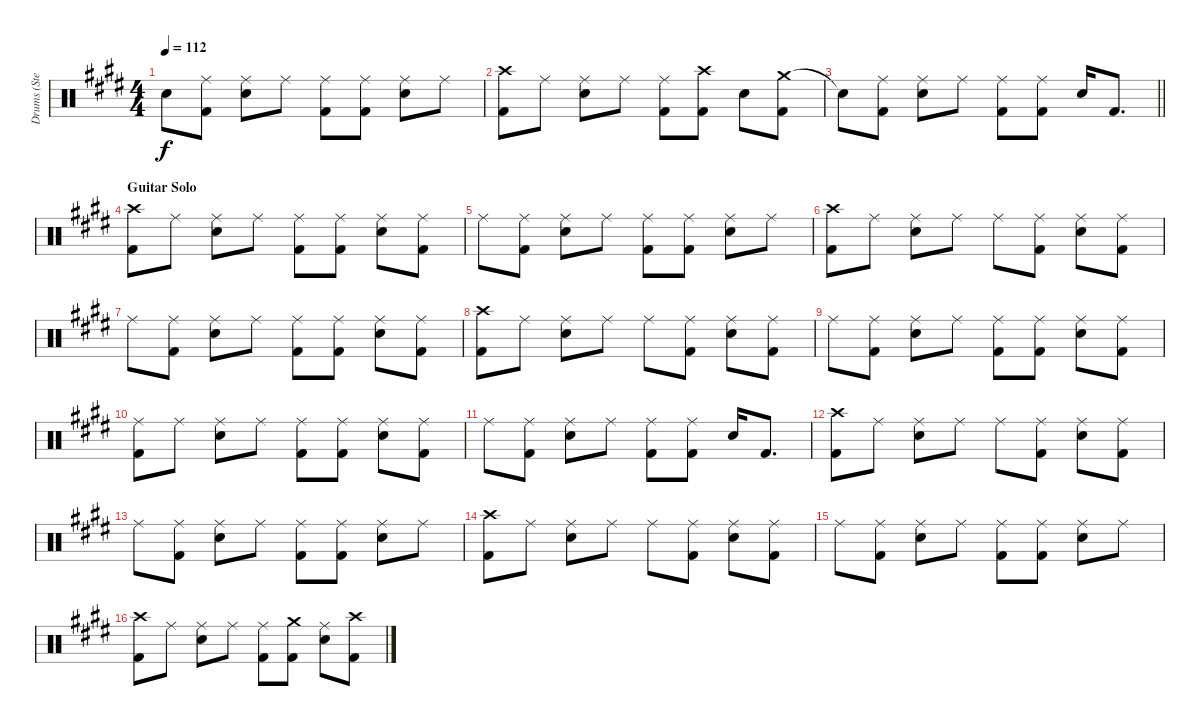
\track ("Drums (Steven)" "Drums (Ste") {instrument percussion}
\staff {score}
\articulation defaults
\ts (4 4)
\tempo 112
\clef neutral
\ks e "Snare (hit)"{t}.8{dy f}
("Ride (middle)" "Kick (hit) 2").8 ("Ride (middle)" "Snare (hit) 2").8 "Ride (middle)".8 ("Ride (middle)" "Kick (hit) 2").8 ("Ride (middle)" "Kick (hit) 2").8 ("Ride (middle)" "Snare (hit) 2").8 "Ride (middle)".8 |
("Crash high (hit)" "Kick (hit) 2").8 "Ride (middle)".8 ("Ride (middle)" "Snare (hit) 2").8 "Ride (middle)".8 ("Ride (middle)" "Kick (hit) 2").8 ("Crash high (hit)" "Kick (hit) 2").8 "Snare (hit) 2".8 ("Crash medium (hit)" "Kick (hit) 2").8 |
\barLineRight lightlight "Snare (hit)"{t}.8
("Ride (middle)" "Kick (hit) 2").8 ("Ride (middle)" "Snare (hit) 2").8 "Ride (middle)".8 ("Ride (middle)" "Kick (hit) 2").8 ("Ride (middle)" "Kick (hit) 2").8 "Snare (hit) 2".16 "Kick (hit) 2".8{d} |
\section ("" "Guitar Solo")
("Crash high (hit)" "Kick (hit) 2").8 "Ride (middle)".8 ("Ride (middle)" "Snare (hit) 2").8 "Ride (middle)".8 ("Ride (middle)" "Kick (hit) 2").8 ("Ride (middle)" "Kick (hit) 2").8 ("Ride (middle)" "Snare (hit) 2").8 ("Ride (middle)" "Kick (hit) 2").8 |
"Ride (middle)".8 ("Ride (middle)" "Kick (hit) 2").8 ("Ride (middle)" "Snare (hit) 2").8 "Ride (middle)".8 ("Ride (middle)" "Kick (hit) 2").8 ("Ride (middle)" "Kick (hit) 2").8 ("Ride (middle)" "Snare (hit) 2").8 "Ride (middle)".8 |
("Crash high (hit)" "Kick (hit) 2").8 "Ride (middle)".8 ("Ride (middle)" "Snare (hit) 2").8 "Ride (middle)".8 "Ride (middle)".8 ("Ride (middle)" "Kick (hit) 2").8 ("Ride (middle)" "Snare (hit) 2").8 ("Ride (middle)" "Kick (hit) 2").8 |
"Ride (middle)".8 ("Ride (middle)" "Kick (hit) 2").8 ("Ride (middle)" "Snare (hit) 2").8 "Ride (middle)".8 ("Ride (middle)" "Kick (hit) 2").8 ("Ride (middle)" "Kick (hit) 2").8 ("Ride (middle)" "Snare (hit) 2").8 ("Ride (middle)" "Kick (hit) 2").8 |
("Crash high (hit)" "Kick (hit) 2").8 "Ride (middle)".8 ("Ride (middle)" "Snare (hit) 2").8 "Ride (middle)".8 "Ride (middle)".8 ("Ride (middle)" "Kick (hit) 2").8 ("Ride (middle)" "Snare (hit) 2").8 ("Ride (middle)" "Kick (hit) 2").8 |
"Ride (middle)".8 ("Ride (middle)" "Kick (hit) 2").8 ("Ride (middle)" "Snare (hit) 2").8 "Ride (middle)".8 ("Ride (middle)" "Kick (hit) 2").8 ("Ride (middle)" "Kick (hit) 2").8 ("Ride (middle)" "Snare (hit) 2").8 ("Ride (middle)" "Kick (hit) 2").8 |
("Ride (middle)" "Kick (hit) 2").8 "Ride (middle)".8 ("Ride (middle)" "Snare (hit) 2").8 "Ride (middle)".8 ("Ride (middle)" "Kick (hit) 2").8 ("Ride (middle)" "Kick (hit) 2").8 ("Ride (middle)" "Snare (hit) 2").8 ("Ride (middle)" "Kick (hit) 2").8 |
"Ride (middle)".8 ("Ride (middle)" "Kick (hit) 2").8 ("Ride (middle)" "Snare (hit) 2").8 "Ride (middle)".8 ("Ride (middle)" "Kick (hit) 2").8 ("Ride (middle)" "Kick (hit) 2").8 "Snare (hit) 2".16 "Kick (hit) 2".8{d} |
("Crash high (hit)" "Kick (hit) 2").8 "Ride (middle)".8 ("Ride (middle)" "Snare (hit) 2").8 "Ride (middle)".8 "Ride (middle)".8 ("Ride (middle)" "Kick (hit) 2").8 ("Ride (middle)" "Snare (hit) 2").8 ("Ride (middle)" "Kick (hit) 2").8 |
"Ride (middle)".8 ("Ride (middle)" "Kick (hit) 2").8 ("Ride (middle)" "Snare (hit) 2").8 "Ride (middle)".8 ("Ride (middle)" "Kick (hit) 2").8 ("Ride (middle)" "Kick (hit) 2").8 ("Ride (middle)" "Snare (hit) 2").8 "Ride (middle)".8 |
("Crash high (hit)" "Kick (hit) 2").8 "Ride (middle)".8 ("Ride (middle)" "Snare (hit) 2").8 "Ride (middle)".8 "Ride (middle)".8 ("Ride (middle)" "Kick (hit) 2").8 ("Ride (middle)" "Snare (hit) 2").8 ("Ride (middle)" "Kick (hit) 2").8 |
"Ride (middle)".8 ("Ride (middle)" "Kick (hit) 2").8 ("Ride (middle)" "Snare (hit) 2").8 "Ride (middle)".8 ("Ride (middle)" "Kick (hit) 2").8 ("Ride (middle)" "Kick (hit) 2").8 ("Ride (middle)" "Snare (hit) 2").8 "Ride (middle)".8 |
("Crash high (hit)" "Kick (hit) 2").8 "Ride (middle)".8 ("Ride (middle)" "Snare (hit) 2").8 "Ride (middle)".8 ("Ride (middle)" "Kick (hit) 2").8 ("Crash medium (hit)" "Kick (hit) 2").8 ("Ride (middle)" "Snare (hit) 2").8 ("Crash high (hit)" "Kick (hit) 2").8
